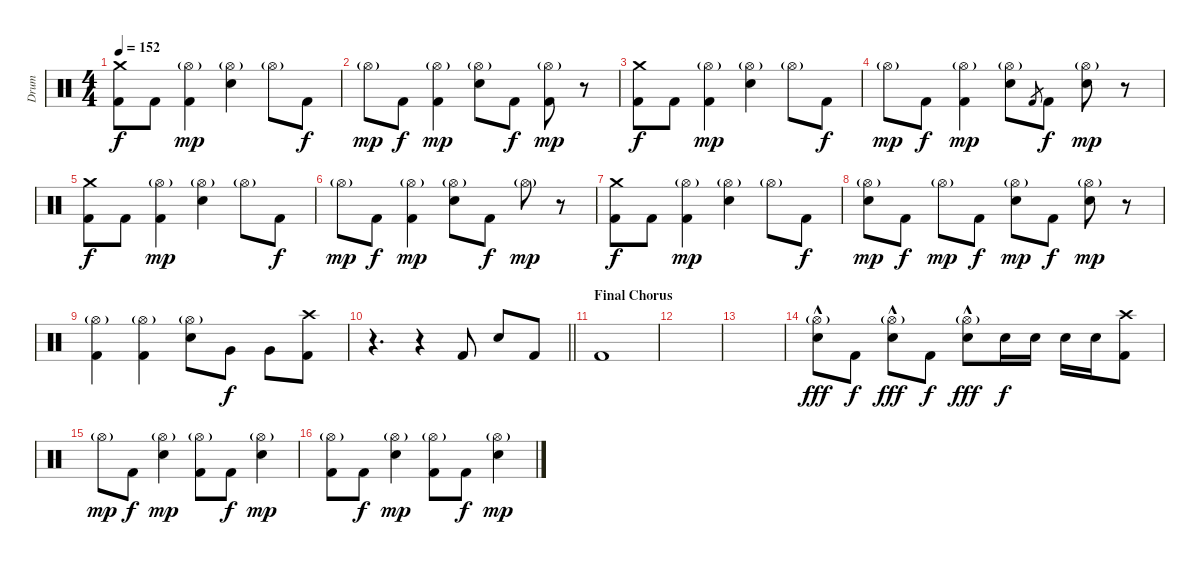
\track ("Drum" "Drum") {instrument percussion}
\staff {score}
\articulation defaults
\ts (4 4)
\tempo 152
\clef neutral
\ks c
("Crash medium (hit)" "Kick (hit) 2").8{dy f} "Kick (hit) 2".8 ("Hi-Hat (open)"{g} "Kick (hit) 2").4{dy mp} ("Hi-Hat (open)"{g} "Electric Snare (hit)").4 "Hi-Hat (open)"{g}.8 "Kick (hit) 2".8{dy f} |
"Hi-Hat (open)"{g}.8{dy mp} "Kick (hit) 2".8{dy f} ("Hi-Hat (open)"{g} "Kick (hit) 2").4{dy mp} ("Hi-Hat (open)"{g} "Electric Snare (hit)").8 "Kick (hit) 2".8{dy f} ("Hi-Hat (open)"{g} "Kick (hit) 2").8{dy mp} r.8 |
("Crash medium (hit)" "Kick (hit) 2").8{dy f} "Kick (hit) 2".8 ("Hi-Hat (open)"{g} "Kick (hit) 2").4{dy mp} ("Hi-Hat (open)"{g} "Electric Snare (hit)").4 "Hi-Hat (open)"{g}.8 "Kick (hit) 2".8{dy f} |
"Hi-Hat (open)"{g}.8{dy mp} "Kick (hit) 2".8{dy f} ("Hi-Hat (open)"{g} "Kick (hit) 2").4{dy mp} ("Hi-Hat (open)"{g} "Electric Snare (hit)").8 "Kick (hit) 2".8{gr} "Kick (hit) 2".8{dy f} ("Hi-Hat (open)"{g} "Electric Snare (hit)").8{dy mp} r.8 |
("Crash medium (hit)" "Kick (hit) 2").8{dy f} "Kick (hit) 2".8 ("Hi-Hat (open)"{g} "Kick (hit) 2").4{dy mp} ("Hi-Hat (open)"{g} "Electric Snare (hit)").4 "Hi-Hat (open)"{g}.8 "Kick (hit) 2".8{dy f} |
"Hi-Hat (open)"{g}.8{dy mp} "Kick (hit) 2".8{dy f} ("Hi-Hat (open)"{g} "Kick (hit) 2").4{dy mp} ("Hi-Hat (open)"{g} "Electric Snare (hit)").8 "Kick (hit) 2".8{dy f} "Hi-Hat (open)"{g}.8{dy mp} r.8 |
("Crash medium (hit)" "Kick (hit) 2").8{dy f} "Kick (hit) 2".8 ("Hi-Hat (open)"{g} "Kick (hit) 2").4{dy mp} ("Hi-Hat (open)"{g} "Electric Snare (hit)").4 "Hi-Hat (open)"{g}.8 "Kick (hit) 2".8{dy f} |
("Hi-Hat (open)"{g} "Electric Snare (hit)").8{dy mp} "Kick (hit) 2".8{dy f} "Hi-Hat (open)"{g}.8{dy mp} "Kick (hit) 2".8{dy f} ("Hi-Hat (open)"{g} "Electric Snare (hit)").8{dy mp} "Kick (hit) 2".8{dy f} ("Hi-Hat (open)"{g} "Electric Snare (hit)").8{dy mp} r.8 |
("Hi-Hat (open)"{g} "Kick (hit) 2").4 ("Hi-Hat (open)"{g} "Kick (hit) 2").4 ("Hi-Hat (open)"{g} "Electric Snare (hit)").8 "Very Low Tom (hit)".8{dy f} "Very Low Tom (hit)".8 ("Crash high (hit)" "Kick (hit) 2").8 |
\barLineRight lightlight
r.4{d} r.4 "Kick (hit) 2".8 "Electric Snare (hit)".8 "Kick (hit) 2".8 |
\section ("" "Final Chorus")
"Kick (hit) 2".1 |
|
|
("Hi-Hat (open)"{g} "Electric Snare (hit)"{hac}).8{dy fff} "Kick (hit) 2".8{dy f} ("Hi-Hat (open)"{g} "Electric Snare (hit)"{hac}).8{dy fff} "Kick (hit) 2".8{dy f} ("Hi-Hat (open)"{g} "Electric Snare (hit)"{hac}).8{dy fff} "Electric Snare (hit)".16{dy f} "Electric Snare (hit)".16 "Electric Snare (hit)".16 "Electric Snare (hit)".16 ("Crash high (hit)" "Kick (hit) 2").8 |
"Hi-Hat (open)"{g}.8{dy mp} "Kick (hit) 2".8{dy f} ("Hi-Hat (open)"{g} "Electric Snare (hit)").4{dy mp} ("Hi-Hat (open)"{g} "Kick (hit) 2").8 "Kick (hit) 2".8{dy f} ("Hi-Hat (open)"{g} "Electric Snare (hit)").4{dy mp} |
("Hi-Hat (open)"{g} "Kick (hit) 2").8 "Kick (hit) 2".8{dy f} ("Hi-Hat (open)"{g} "Electric Snare (hit)").4{dy mp} ("Hi-Hat (open)"{g} "Kick (hit) 2").8 "Kick (hit) 2".8{dy f} ("Hi-Hat (open)"{g} "Electric Snare (hit)").4{dy mp}
